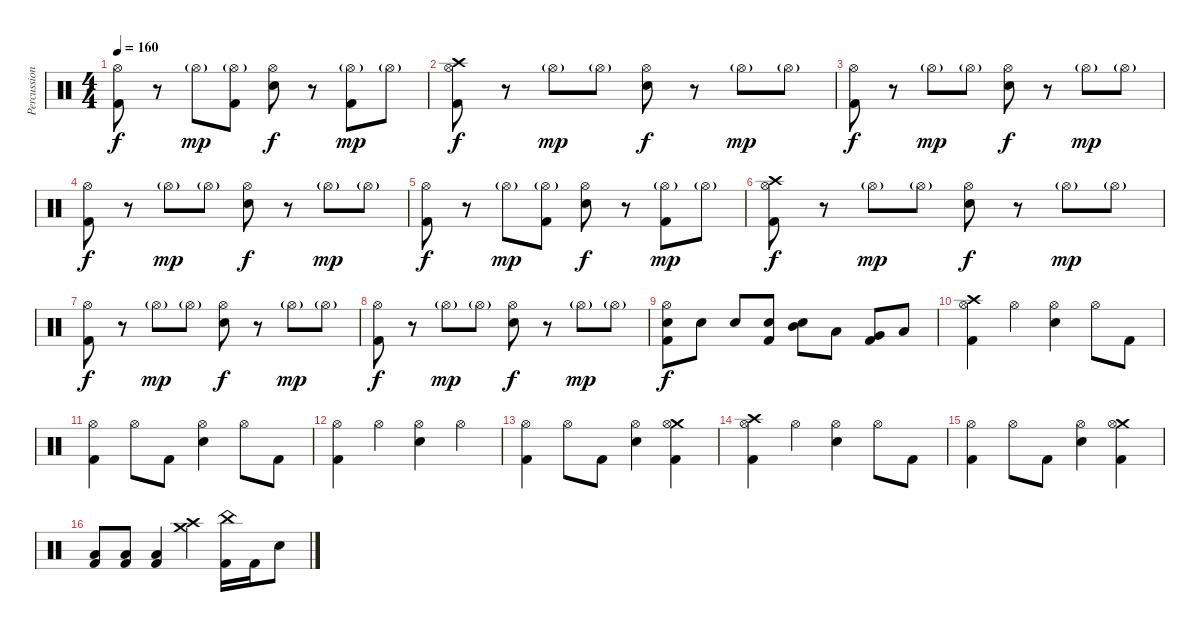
\track ("Percussion" "Percussion") {instrument percussion}
\staff {score}
\articulation defaults
\ts (4 4)
\tempo 160
\clef neutral
\ks c
("Hi-Hat (open)" "Kick (hit) 2").8{dy f} r.8 "Hi-Hat (open)"{g}.8{dy mp} ("Hi-Hat (open)"{g} "Kick (hit) 2").8 ("Hi-Hat (open)" "Electric Snare (hit)").8{dy f} r.8 ("Hi-Hat (open)"{g} "Kick (hit) 2").8{dy mp} "Hi-Hat (open)"{g}.8 |
("Crash high (hit)" "Hi-Hat (open)" "Kick (hit) 2").8{dy f} r.8 "Hi-Hat (open)"{g}.8{dy mp} "Hi-Hat (open)"{g}.8 ("Hi-Hat (open)" "Electric Snare (hit)").8{dy f} r.8 "Hi-Hat (open)"{g}.8{dy mp} "Hi-Hat (open)"{g}.8 |
("Hi-Hat (open)" "Kick (hit) 2").8{dy f} r.8 "Hi-Hat (open)"{g}.8{dy mp} "Hi-Hat (open)"{g}.8 ("Hi-Hat (open)" "Electric Snare (hit)").8{dy f} r.8 "Hi-Hat (open)"{g}.8{dy mp} "Hi-Hat (open)"{g}.8 |
("Hi-Hat (open)" "Kick (hit) 2").8{dy f} r.8 "Hi-Hat (open)"{g}.8{dy mp} "Hi-Hat (open)"{g}.8 ("Hi-Hat (open)" "Electric Snare (hit)").8{dy f} r.8 "Hi-Hat (open)"{g}.8{dy mp} "Hi-Hat (open)"{g}.8 |
("Hi-Hat (open)" "Kick (hit) 2").8{dy f} r.8 "Hi-Hat (open)"{g}.8{dy mp} ("Hi-Hat (open)"{g} "Kick (hit) 2").8 ("Hi-Hat (open)" "Electric Snare (hit)").8{dy f} r.8 ("Hi-Hat (open)"{g} "Kick (hit) 2").8{dy mp} "Hi-Hat (open)"{g}.8 |
("Crash high (hit)" "Hi-Hat (open)" "Kick (hit) 2").8{dy f} r.8 "Hi-Hat (open)"{g}.8{dy mp} "Hi-Hat (open)"{g}.8 ("Hi-Hat (open)" "Electric Snare (hit)").8{dy f} r.8 "Hi-Hat (open)"{g}.8{dy mp} "Hi-Hat (open)"{g}.8 |
("Hi-Hat (open)" "Kick (hit) 2").8{dy f} r.8 "Hi-Hat (open)"{g}.8{dy mp} "Hi-Hat (open)"{g}.8 ("Hi-Hat (open)" "Electric Snare (hit)").8{dy f} r.8 "Hi-Hat (open)"{g}.8{dy mp} "Hi-Hat (open)"{g}.8 |
("Hi-Hat (open)" "Kick (hit) 2").8{dy f} r.8 "Hi-Hat (open)"{g}.8{dy mp} "Hi-Hat (open)"{g}.8 ("Hi-Hat (open)" "Electric Snare (hit)").8{dy f} r.8 "Hi-Hat (open)"{g}.8{dy mp} "Hi-Hat (open)"{g}.8 |
("Electric Snare (hit)" "Hi-Hat (open)" "Kick (hit) 2").8{dy f} "Electric Snare (hit)".8 "Electric Snare (hit)".8 ("Electric Snare (hit)" "Kick (hit) 2").8 ("Mid Tom (hit)" "Electric Snare (hit)").8 "Low Tom (hit)".8 ("Very Low Tom (hit)" "Kick (hit) 2").8 "Low Floor Tom (hit)".8 |
("Crash high (hit)" "Hi-Hat (open)" "Kick (hit) 2").4 "Hi-Hat (open)".4 ("Hi-Hat (open)" "Electric Snare (hit)").4 "Hi-Hat (open)".8 "Kick (hit) 2".8 |
("Hi-Hat (open)" "Kick (hit) 2").4 "Hi-Hat (open)".8 "Kick (hit) 2".8 ("Hi-Hat (open)" "Electric Snare (hit)").4 "Hi-Hat (open)".8 "Kick (hit) 2".8 |
("Hi-Hat (open)" "Kick (hit) 2").4 "Hi-Hat (open)".4 ("Hi-Hat (open)" "Electric Snare (hit)").4 "Hi-Hat (open)".4 |
("Hi-Hat (open)" "Kick (hit) 2").4 "Hi-Hat (open)".8 "Kick (hit) 2".8 ("Hi-Hat (open)" "Electric Snare (hit)").4 ("Crash medium (hit)" "Hi-Hat (open)" "Kick (hit) 2").4 |
("Crash high (hit)" "Hi-Hat (open)" "Kick (hit) 2").4 "Hi-Hat (open)".4 ("Hi-Hat (open)" "Electric Snare (hit)").4 "Hi-Hat (open)".8 "Kick (hit) 2".8 |
("Hi-Hat (open)" "Kick (hit) 2").4 "Hi-Hat (open)".8 "Kick (hit) 2".8 ("Hi-Hat (open)" "Electric Snare (hit)").4 ("Crash medium (hit)" "Hi-Hat (open)" "Kick (hit) 2").4 |
("Low Tom (hit)" "Kick (hit) 2").8 ("Low Tom (hit)" "Kick (hit) 2").8 ("Low Tom (hit)" "Kick (hit) 2").4 ("Crash medium (hit)" "Crash high (hit)").4 ("China (hit)" "Kick (hit) 2").16 "Kick (hit) 2".16 "Electric Snare (hit)".8
